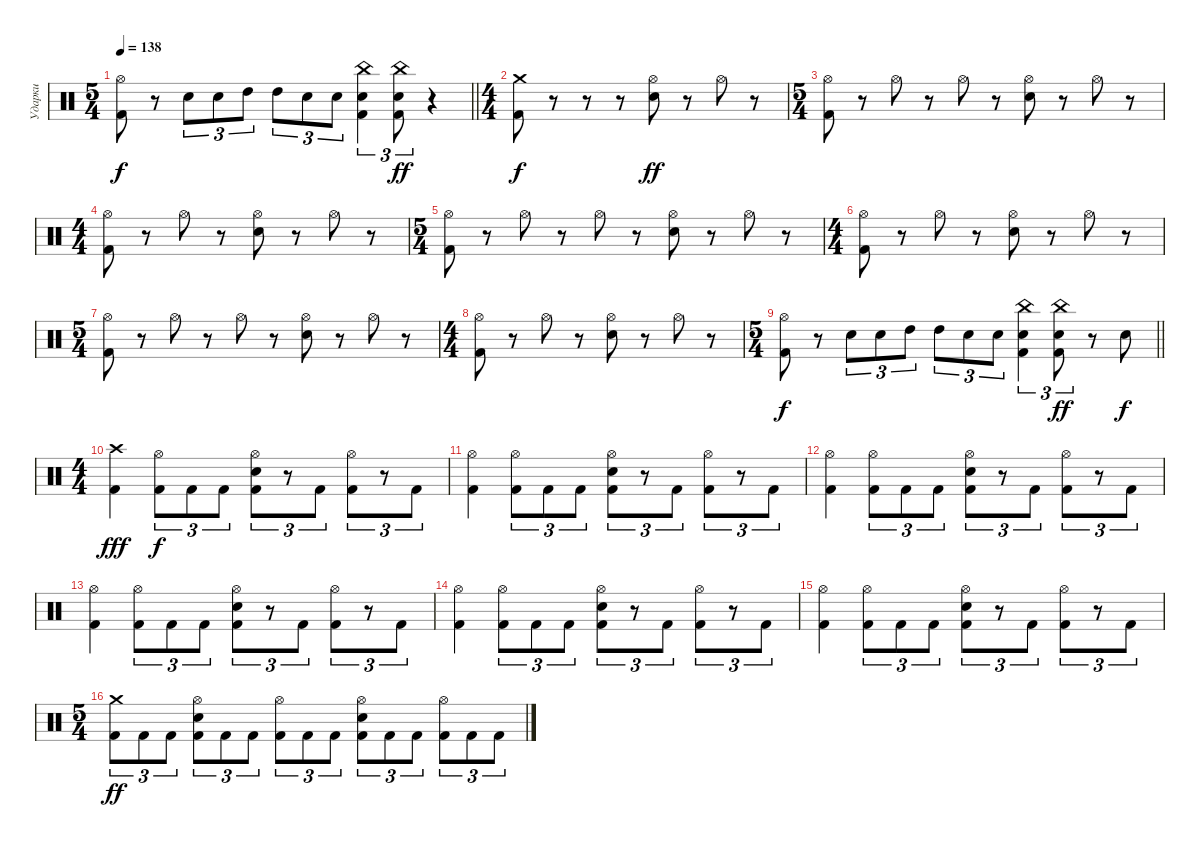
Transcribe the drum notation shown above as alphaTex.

\track ("Ударки" "Ударки") {instrument percussion}
\staff {score}
\articulation defaults
\ts (5 4)
\tempo 138
\clef neutral
\barLineRight lightlight
\ks c
("Hi-Hat (open)" "Kick (hit) 2").8{dy f} r.8 "Snare (hit) 2".8{tu (3 2)} "Snare (hit) 2".8{tu (3 2)} "High Tom (hit)".8{tu (3 2)} "High Tom (hit)".8{tu (3 2)} "Snare (hit) 2".8{tu (3 2)} "Snare (hit) 2".8{tu (3 2)} ("Kick (hit) 2" "Snare (hit) 2" "China (hit)").4{tu (3 2)} ("Kick (hit) 2" "Snare (hit) 2" "China (hit)").8{tu (3 2) dy ff} r.4 |
\ts (4 4)
\section ("" "")
("Kick (hit) 2" "Crash medium (hit)").8{dy f} r.8 r.8 r.8 ("Snare (hit) 2" "Hi-Hat (open)").8{dy ff} r.8 "Hi-Hat (open)".8 r.8 |
\ts (5 4)
("Kick (hit) 2" "Hi-Hat (open)").8 r.8 "Hi-Hat (open)".8 r.8 "Hi-Hat (open)".8 r.8 ("Snare (hit) 2" "Hi-Hat (open)").8 r.8 "Hi-Hat (open)".8 r.8 |
\ts (4 4)
("Kick (hit) 2" "Hi-Hat (open)").8 r.8 "Hi-Hat (open)".8 r.8 ("Snare (hit) 2" "Hi-Hat (open)").8 r.8 "Hi-Hat (open)".8 r.8 |
\ts (5 4)
("Kick (hit) 2" "Hi-Hat (open)").8 r.8 "Hi-Hat (open)".8 r.8 "Hi-Hat (open)".8 r.8 ("Snare (hit) 2" "Hi-Hat (open)").8 r.8 "Hi-Hat (open)".8 r.8 |
\ts (4 4)
("Kick (hit) 2" "Hi-Hat (open)").8 r.8 "Hi-Hat (open)".8 r.8 ("Snare (hit) 2" "Hi-Hat (open)").8 r.8 "Hi-Hat (open)".8 r.8 |
\ts (5 4)
("Kick (hit) 2" "Hi-Hat (open)").8 r.8 "Hi-Hat (open)".8 r.8 "Hi-Hat (open)".8 r.8 ("Snare (hit) 2" "Hi-Hat (open)").8 r.8 "Hi-Hat (open)".8 r.8 |
\ts (4 4)
("Kick (hit) 2" "Hi-Hat (open)").8 r.8 "Hi-Hat (open)".8 r.8 ("Snare (hit) 2" "Hi-Hat (open)").8 r.8 "Hi-Hat (open)".8 r.8 |
\ts (5 4)
\barLineRight lightlight
("Hi-Hat (open)" "Kick (hit) 2").8{dy f} r.8 "Snare (hit) 2".8{tu (3 2)} "Snare (hit) 2".8{tu (3 2)} "High Tom (hit)".8{tu (3 2)} "High Tom (hit)".8{tu (3 2)} "Snare (hit) 2".8{tu (3 2)} "Snare (hit) 2".8{tu (3 2)} ("Kick (hit) 2" "Snare (hit) 2" "China (hit)").4{tu (3 2)} ("Kick (hit) 2" "Snare (hit) 2" "China (hit)").8{tu (3 2) dy ff} r.8 "Snare (hit) 2".8{dy f} |
\ts (4 4)
("Crash high (hit)" "Kick (hit) 2").4{dy fff} ("Hi-Hat (open)" "Kick (hit) 2").8{tu (3 2) dy f} "Kick (hit) 2".8{tu (3 2)} "Kick (hit) 2".8{tu (3 2)} ("Hi-Hat (open)" "Snare (hit) 2" "Kick (hit) 2").8{tu (3 2)} r.8{tu (3 2)} "Kick (hit) 2".8{tu (3 2)} ("Hi-Hat (open)" "Kick (hit) 2").8{tu (3 2)} r.8{tu (3 2)} "Kick (hit) 2".8{tu (3 2)} |
("Hi-Hat (open)" "Kick (hit) 2").4 ("Hi-Hat (open)" "Kick (hit) 2").8{tu (3 2)} "Kick (hit) 2".8{tu (3 2)} "Kick (hit) 2".8{tu (3 2)} ("Hi-Hat (open)" "Snare (hit) 2" "Kick (hit) 2").8{tu (3 2)} r.8{tu (3 2)} "Kick (hit) 2".8{tu (3 2)} ("Hi-Hat (open)" "Kick (hit) 2").8{tu (3 2)} r.8{tu (3 2)} "Kick (hit) 2".8{tu (3 2)} |
("Hi-Hat (open)" "Kick (hit) 2").4 ("Hi-Hat (open)" "Kick (hit) 2").8{tu (3 2)} "Kick (hit) 2".8{tu (3 2)} "Kick (hit) 2".8{tu (3 2)} ("Hi-Hat (open)" "Snare (hit) 2" "Kick (hit) 2").8{tu (3 2)} r.8{tu (3 2)} "Kick (hit) 2".8{tu (3 2)} ("Hi-Hat (open)" "Kick (hit) 2").8{tu (3 2)} r.8{tu (3 2)} "Kick (hit) 2".8{tu (3 2)} |
("Hi-Hat (open)" "Kick (hit) 2").4 ("Hi-Hat (open)" "Kick (hit) 2").8{tu (3 2)} "Kick (hit) 2".8{tu (3 2)} "Kick (hit) 2".8{tu (3 2)} ("Hi-Hat (open)" "Snare (hit) 2" "Kick (hit) 2").8{tu (3 2)} r.8{tu (3 2)} "Kick (hit) 2".8{tu (3 2)} ("Hi-Hat (open)" "Kick (hit) 2").8{tu (3 2)} r.8{tu (3 2)} "Kick (hit) 2".8{tu (3 2)} |
("Hi-Hat (open)" "Kick (hit) 2").4 ("Hi-Hat (open)" "Kick (hit) 2").8{tu (3 2)} "Kick (hit) 2".8{tu (3 2)} "Kick (hit) 2".8{tu (3 2)} ("Hi-Hat (open)" "Snare (hit) 2" "Kick (hit) 2").8{tu (3 2)} r.8{tu (3 2)} "Kick (hit) 2".8{tu (3 2)} ("Hi-Hat (open)" "Kick (hit) 2").8{tu (3 2)} r.8{tu (3 2)} "Kick (hit) 2".8{tu (3 2)} |
("Hi-Hat (open)" "Kick (hit) 2").4 ("Hi-Hat (open)" "Kick (hit) 2").8{tu (3 2)} "Kick (hit) 2".8{tu (3 2)} "Kick (hit) 2".8{tu (3 2)} ("Hi-Hat (open)" "Snare (hit) 2" "Kick (hit) 2").8{tu (3 2)} r.8{tu (3 2)} "Kick (hit) 2".8{tu (3 2)} ("Hi-Hat (open)" "Kick (hit) 2").8{tu (3 2)} r.8{tu (3 2)} "Kick (hit) 2".8{tu (3 2)} |
\ts (5 4)
("Crash medium (hit)" "Kick (hit) 2").8{tu (3 2) dy ff} "Kick (hit) 2".8{tu (3 2)} "Kick (hit) 2".8{tu (3 2)} ("Hi-Hat (open)" "Snare (hit) 2" "Kick (hit) 2").8{tu (3 2)} "Kick (hit) 2".8{tu (3 2)} "Kick (hit) 2".8{tu (3 2)} ("Hi-Hat (open)" "Kick (hit) 2").8{tu (3 2)} "Kick (hit) 2".8{tu (3 2)} "Kick (hit) 2".8{tu (3 2)} ("Hi-Hat (open)" "Snare (hit) 2" "Kick (hit) 2").8{tu (3 2)} "Kick (hit) 2".8{tu (3 2)} "Kick (hit) 2".8{tu (3 2)} ("Hi-Hat (open)" "Kick (hit) 2").8{tu (3 2)} "Kick (hit) 2".8{tu (3 2)} "Kick (hit) 2".8{tu (3 2)}
